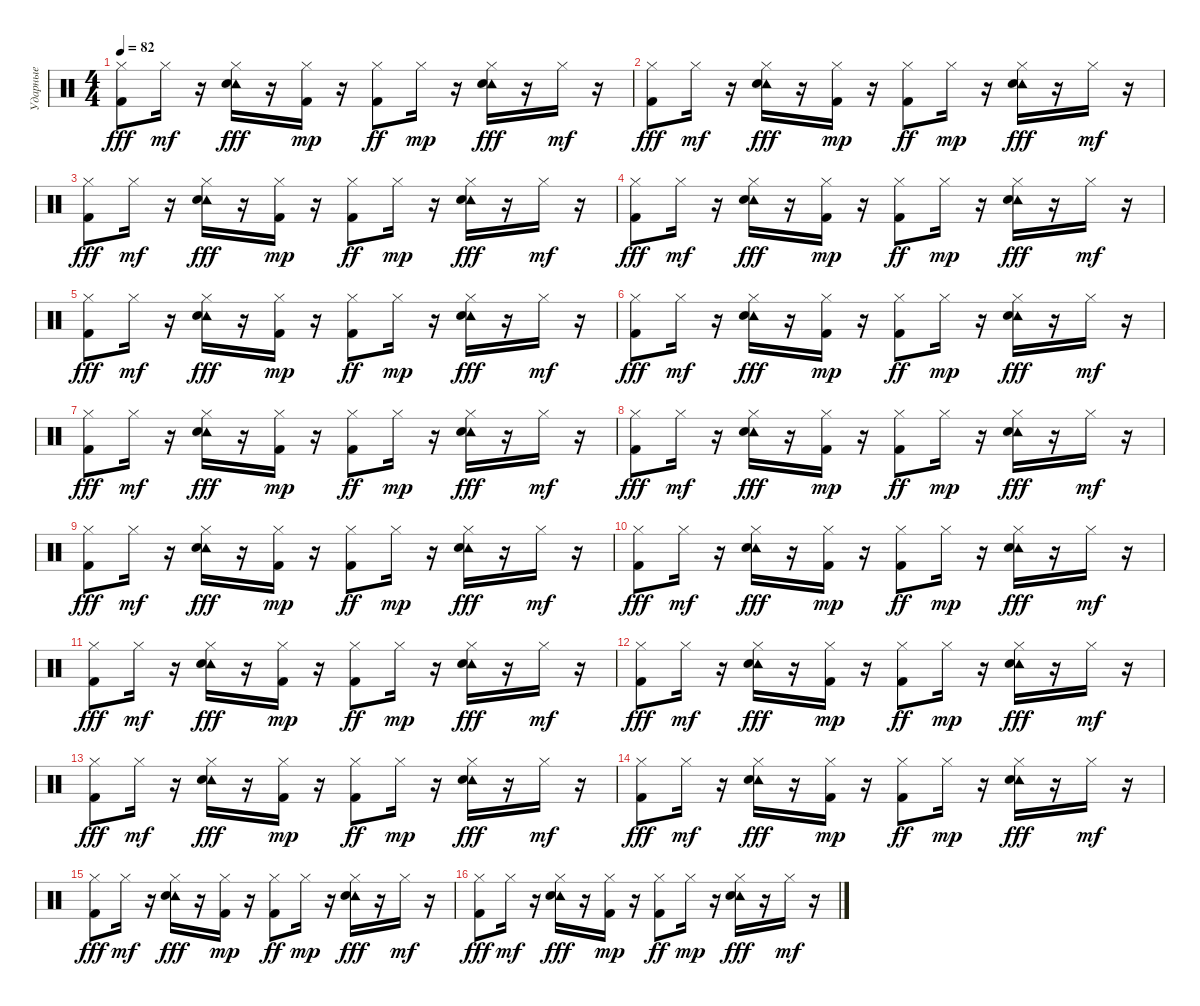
\track ("Ударные" "Ударные") {instrument percussion}
\staff {score}
\articulation defaults
\ts (4 4)
\tempo 82
\clef neutral
\ks c
("Kick (hit) 2" "Hi-Hat (closed)").8{dy fff} "Hi-Hat (closed)".16{dy mf} r.16 ("Tambourine (hit)" "Hi-Hat (closed)" "Snare (hit) 2").16{dy fff} r.16 ("Kick (hit) 2" "Hi-Hat (closed)").16{dy mp} r.16 ("Kick (hit) 2" "Hi-Hat (closed)").8{dy ff} "Hi-Hat (closed)".16{dy mp} r.16 ("Tambourine (hit)" "Hi-Hat (closed)" "Snare (hit) 2").16{dy fff} r.16 "Hi-Hat (closed)".16{dy mf} r.16 |
("Kick (hit) 2" "Hi-Hat (closed)").8{dy fff} "Hi-Hat (closed)".16{dy mf} r.16 ("Tambourine (hit)" "Hi-Hat (closed)" "Snare (hit) 2").16{dy fff} r.16 ("Kick (hit) 2" "Hi-Hat (closed)").16{dy mp} r.16 ("Kick (hit) 2" "Hi-Hat (closed)").8{dy ff} "Hi-Hat (closed)".16{dy mp} r.16 ("Tambourine (hit)" "Hi-Hat (closed)" "Snare (hit) 2").16{dy fff} r.16 "Hi-Hat (closed)".16{dy mf} r.16 |
("Kick (hit) 2" "Hi-Hat (closed)").8{dy fff} "Hi-Hat (closed)".16{dy mf} r.16 ("Tambourine (hit)" "Hi-Hat (closed)" "Snare (hit) 2").16{dy fff} r.16 ("Kick (hit) 2" "Hi-Hat (closed)").16{dy mp} r.16 ("Kick (hit) 2" "Hi-Hat (closed)").8{dy ff} "Hi-Hat (closed)".16{dy mp} r.16 ("Tambourine (hit)" "Hi-Hat (closed)" "Snare (hit) 2").16{dy fff} r.16 "Hi-Hat (closed)".16{dy mf} r.16 |
("Kick (hit) 2" "Hi-Hat (closed)").8{dy fff} "Hi-Hat (closed)".16{dy mf} r.16 ("Tambourine (hit)" "Hi-Hat (closed)" "Snare (hit) 2").16{dy fff} r.16 ("Kick (hit) 2" "Hi-Hat (closed)").16{dy mp} r.16 ("Kick (hit) 2" "Hi-Hat (closed)").8{dy ff} "Hi-Hat (closed)".16{dy mp} r.16 ("Tambourine (hit)" "Hi-Hat (closed)" "Snare (hit) 2").16{dy fff} r.16 "Hi-Hat (closed)".16{dy mf} r.16 |
("Kick (hit) 2" "Hi-Hat (closed)").8{dy fff} "Hi-Hat (closed)".16{dy mf} r.16 ("Tambourine (hit)" "Hi-Hat (closed)" "Snare (hit) 2").16{dy fff} r.16 ("Kick (hit) 2" "Hi-Hat (closed)").16{dy mp} r.16 ("Kick (hit) 2" "Hi-Hat (closed)").8{dy ff} "Hi-Hat (closed)".16{dy mp} r.16 ("Tambourine (hit)" "Hi-Hat (closed)" "Snare (hit) 2").16{dy fff} r.16 "Hi-Hat (closed)".16{dy mf} r.16 |
("Kick (hit) 2" "Hi-Hat (closed)").8{dy fff} "Hi-Hat (closed)".16{dy mf} r.16 ("Tambourine (hit)" "Hi-Hat (closed)" "Snare (hit) 2").16{dy fff} r.16 ("Kick (hit) 2" "Hi-Hat (closed)").16{dy mp} r.16 ("Kick (hit) 2" "Hi-Hat (closed)").8{dy ff} "Hi-Hat (closed)".16{dy mp} r.16 ("Tambourine (hit)" "Hi-Hat (closed)" "Snare (hit) 2").16{dy fff} r.16 "Hi-Hat (closed)".16{dy mf} r.16 |
("Kick (hit) 2" "Hi-Hat (closed)").8{dy fff} "Hi-Hat (closed)".16{dy mf} r.16 ("Tambourine (hit)" "Hi-Hat (closed)" "Snare (hit) 2").16{dy fff} r.16 ("Kick (hit) 2" "Hi-Hat (closed)").16{dy mp} r.16 ("Kick (hit) 2" "Hi-Hat (closed)").8{dy ff} "Hi-Hat (closed)".16{dy mp} r.16 ("Tambourine (hit)" "Hi-Hat (closed)" "Snare (hit) 2").16{dy fff} r.16 "Hi-Hat (closed)".16{dy mf} r.16 |
("Kick (hit) 2" "Hi-Hat (closed)").8{dy fff} "Hi-Hat (closed)".16{dy mf} r.16 ("Tambourine (hit)" "Hi-Hat (closed)" "Snare (hit) 2").16{dy fff} r.16 ("Kick (hit) 2" "Hi-Hat (closed)").16{dy mp} r.16 ("Kick (hit) 2" "Hi-Hat (closed)").8{dy ff} "Hi-Hat (closed)".16{dy mp} r.16 ("Tambourine (hit)" "Hi-Hat (closed)" "Snare (hit) 2").16{dy fff} r.16 "Hi-Hat (closed)".16{dy mf} r.16 |
("Kick (hit) 2" "Hi-Hat (closed)").8{dy fff} "Hi-Hat (closed)".16{dy mf} r.16 ("Tambourine (hit)" "Hi-Hat (closed)" "Snare (hit) 2").16{dy fff} r.16 ("Kick (hit) 2" "Hi-Hat (closed)").16{dy mp} r.16 ("Kick (hit) 2" "Hi-Hat (closed)").8{dy ff} "Hi-Hat (closed)".16{dy mp} r.16 ("Tambourine (hit)" "Hi-Hat (closed)" "Snare (hit) 2").16{dy fff} r.16 "Hi-Hat (closed)".16{dy mf} r.16 |
("Kick (hit) 2" "Hi-Hat (closed)").8{dy fff} "Hi-Hat (closed)".16{dy mf} r.16 ("Tambourine (hit)" "Hi-Hat (closed)" "Snare (hit) 2").16{dy fff} r.16 ("Kick (hit) 2" "Hi-Hat (closed)").16{dy mp} r.16 ("Kick (hit) 2" "Hi-Hat (closed)").8{dy ff} "Hi-Hat (closed)".16{dy mp} r.16 ("Tambourine (hit)" "Hi-Hat (closed)" "Snare (hit) 2").16{dy fff} r.16 "Hi-Hat (closed)".16{dy mf} r.16 |
("Kick (hit) 2" "Hi-Hat (closed)").8{dy fff} "Hi-Hat (closed)".16{dy mf} r.16 ("Tambourine (hit)" "Hi-Hat (closed)" "Snare (hit) 2").16{dy fff} r.16 ("Kick (hit) 2" "Hi-Hat (closed)").16{dy mp} r.16 ("Kick (hit) 2" "Hi-Hat (closed)").8{dy ff} "Hi-Hat (closed)".16{dy mp} r.16 ("Tambourine (hit)" "Hi-Hat (closed)" "Snare (hit) 2").16{dy fff} r.16 "Hi-Hat (closed)".16{dy mf} r.16 |
("Kick (hit) 2" "Hi-Hat (closed)").8{dy fff} "Hi-Hat (closed)".16{dy mf} r.16 ("Tambourine (hit)" "Hi-Hat (closed)" "Snare (hit) 2").16{dy fff} r.16 ("Kick (hit) 2" "Hi-Hat (closed)").16{dy mp} r.16 ("Kick (hit) 2" "Hi-Hat (closed)").8{dy ff} "Hi-Hat (closed)".16{dy mp} r.16 ("Tambourine (hit)" "Hi-Hat (closed)" "Snare (hit) 2").16{dy fff} r.16 "Hi-Hat (closed)".16{dy mf} r.16 |
("Kick (hit) 2" "Hi-Hat (closed)").8{dy fff} "Hi-Hat (closed)".16{dy mf} r.16 ("Tambourine (hit)" "Hi-Hat (closed)" "Snare (hit) 2").16{dy fff} r.16 ("Kick (hit) 2" "Hi-Hat (closed)").16{dy mp} r.16 ("Kick (hit) 2" "Hi-Hat (closed)").8{dy ff} "Hi-Hat (closed)".16{dy mp} r.16 ("Tambourine (hit)" "Hi-Hat (closed)" "Snare (hit) 2").16{dy fff} r.16 "Hi-Hat (closed)".16{dy mf} r.16 |
("Kick (hit) 2" "Hi-Hat (closed)").8{dy fff} "Hi-Hat (closed)".16{dy mf} r.16 ("Tambourine (hit)" "Hi-Hat (closed)" "Snare (hit) 2").16{dy fff} r.16 ("Kick (hit) 2" "Hi-Hat (closed)").16{dy mp} r.16 ("Kick (hit) 2" "Hi-Hat (closed)").8{dy ff} "Hi-Hat (closed)".16{dy mp} r.16 ("Tambourine (hit)" "Hi-Hat (closed)" "Snare (hit) 2").16{dy fff} r.16 "Hi-Hat (closed)".16{dy mf} r.16 |
("Kick (hit) 2" "Hi-Hat (closed)").8{dy fff} "Hi-Hat (closed)".16{dy mf} r.16 ("Tambourine (hit)" "Hi-Hat (closed)" "Snare (hit) 2").16{dy fff} r.16 ("Kick (hit) 2" "Hi-Hat (closed)").16{dy mp} r.16 ("Kick (hit) 2" "Hi-Hat (closed)").8{dy ff} "Hi-Hat (closed)".16{dy mp} r.16 ("Tambourine (hit)" "Hi-Hat (closed)" "Snare (hit) 2").16{dy fff} r.16 "Hi-Hat (closed)".16{dy mf} r.16 |
("Kick (hit) 2" "Hi-Hat (closed)").8{dy fff} "Hi-Hat (closed)".16{dy mf} r.16 ("Tambourine (hit)" "Hi-Hat (closed)" "Snare (hit) 2").16{dy fff} r.16 ("Kick (hit) 2" "Hi-Hat (closed)").16{dy mp} r.16 ("Kick (hit) 2" "Hi-Hat (closed)").8{dy ff} "Hi-Hat (closed)".16{dy mp} r.16 ("Tambourine (hit)" "Hi-Hat (closed)" "Snare (hit) 2").16{dy fff} r.16 "Hi-Hat (closed)".16{dy mf} r.16
